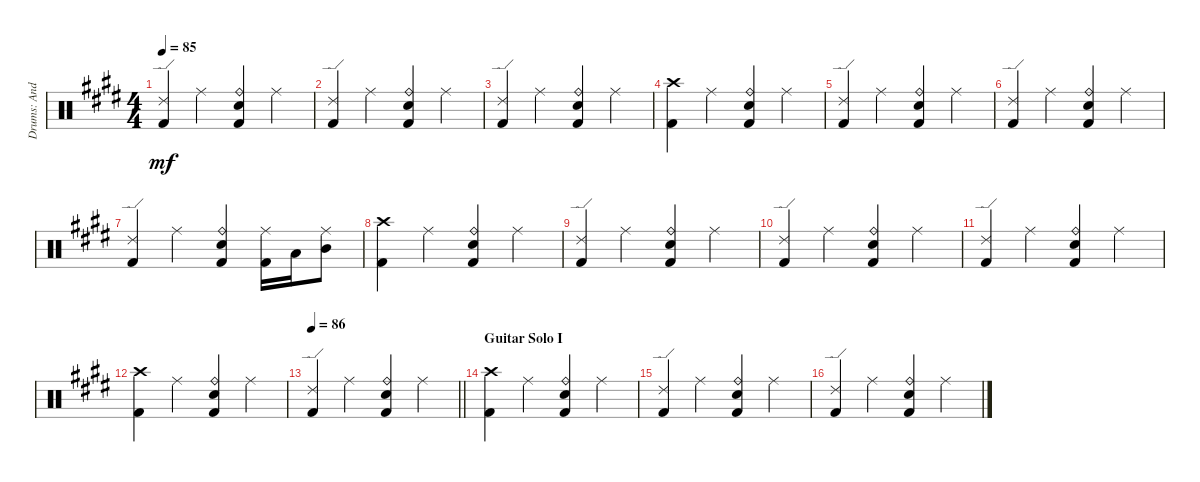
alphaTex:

\track ("Drums: Andy" "Drums: And") {instrument percussion}
\staff {score}
\articulation defaults
\ts (4 4)
\tempo 85
\clef neutral
\ks e
("Ride (edge) 2" "Kick (hit) 2").4{dy mf} "Ride (middle)".4 ("Ride (bell)" "Electric Snare (hit)" "Kick (hit) 2").4 "Ride (middle)".4 |
("Ride (edge) 2" "Kick (hit) 2").4 "Ride (middle)".4 ("Ride (bell)" "Electric Snare (hit)" "Kick (hit) 2").4 "Ride (middle)".4 |
("Ride (edge) 2" "Kick (hit) 2").4 "Ride (middle)".4 ("Ride (bell)" "Electric Snare (hit)" "Kick (hit) 2").4 "Ride (middle)".4 |
("Crash high (hit)" "Kick (hit) 2").4 "Ride (middle)".4 ("Ride (bell)" "Electric Snare (hit)" "Kick (hit) 2").4 "Ride (middle)".4 |
("Ride (edge) 2" "Kick (hit) 2").4 "Ride (middle)".4 ("Ride (bell)" "Electric Snare (hit)" "Kick (hit) 2").4 "Ride (middle)".4 |
("Ride (edge) 2" "Kick (hit) 2").4 "Ride (middle)".4 ("Ride (bell)" "Electric Snare (hit)" "Kick (hit) 2").4 "Ride (middle)".4 |
("Ride (edge) 2" "Kick (hit) 2").4 "Ride (middle)".4 ("Ride (bell)" "Electric Snare (hit)" "Kick (hit) 2").4 ("Ride (middle)" "Kick (hit) 2").16 "Low Tom (hit)".16 ("Ride (middle)" "Mid Tom (hit)").8 |
("Crash high (hit)" "Kick (hit) 2").4 "Ride (middle)".4 ("Ride (bell)" "Electric Snare (hit)" "Kick (hit) 2").4 "Ride (middle)".4 |
("Ride (edge) 2" "Kick (hit) 2").4 "Ride (middle)".4 ("Ride (bell)" "Electric Snare (hit)" "Kick (hit) 2").4 "Ride (middle)".4 |
("Ride (edge) 2" "Kick (hit) 2").4 "Ride (middle)".4 ("Ride (bell)" "Electric Snare (hit)" "Kick (hit) 2").4 "Ride (middle)".4 |
("Ride (edge) 2" "Kick (hit) 2").4 "Ride (middle)".4 ("Ride (bell)" "Electric Snare (hit)" "Kick (hit) 2").4 "Ride (middle)".4 |
("Crash high (hit)" "Kick (hit) 2").4 "Ride (middle)".4 ("Ride (bell)" "Electric Snare (hit)" "Kick (hit) 2").4 "Ride (middle)".4 |
\tempo 86
\barLineRight lightlight
("Ride (edge) 2" "Kick (hit) 2").4 "Ride (middle)".4 ("Ride (bell)" "Electric Snare (hit)" "Kick (hit) 2").4 "Ride (middle)".4 |
\section ("" "Guitar Solo I")
("Crash high (hit)" "Kick (hit) 2").4 "Ride (middle)".4 ("Ride (bell)" "Electric Snare (hit)" "Kick (hit) 2").4 "Ride (middle)".4 |
("Ride (edge) 2" "Kick (hit) 2").4 "Ride (middle)".4 ("Ride (bell)" "Electric Snare (hit)" "Kick (hit) 2").4 "Ride (middle)".4 |
("Ride (edge) 2" "Kick (hit) 2").4 "Ride (middle)".4 ("Ride (bell)" "Electric Snare (hit)" "Kick (hit) 2").4 "Ride (middle)".4
